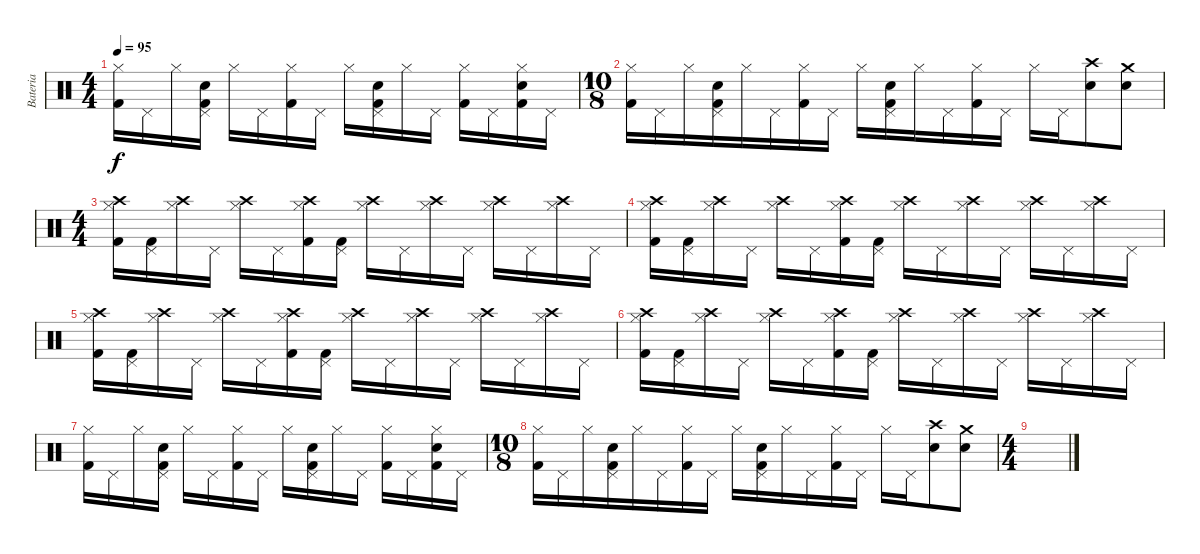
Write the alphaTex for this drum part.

\track ("Bateria" "Bateria") {instrument percussion}
\staff {score}
\articulation defaults
\ts (4 4)
\tempo 95
\clef neutral
\ks c
("Hi-Hat (closed)" "Kick (hit) 2").16{dy f} "Pedal Hi-Hat (hit)".16 "Hi-Hat (closed)".16 ("Pedal Hi-Hat (hit)" "Electric Snare (hit)" "Kick (hit) 2").16 "Hi-Hat (closed)".16 "Pedal Hi-Hat (hit)".16 ("Hi-Hat (closed)" "Kick (hit) 2").16 "Pedal Hi-Hat (hit)".16 "Hi-Hat (closed)".16 ("Pedal Hi-Hat (hit)" "Electric Snare (hit)" "Kick (hit) 2").16 "Hi-Hat (closed)".16 "Pedal Hi-Hat (hit)".16 ("Hi-Hat (closed)" "Kick (hit) 2").16 "Pedal Hi-Hat (hit)".16 ("Hi-Hat (closed)" "Electric Snare (hit)" "Kick (hit) 2").16 "Pedal Hi-Hat (hit)".16 |
\ts (10 8)
("Hi-Hat (closed)" "Kick (hit) 2").16 "Pedal Hi-Hat (hit)".16 "Hi-Hat (closed)".16 ("Pedal Hi-Hat (hit)" "Electric Snare (hit)" "Kick (hit) 2").16 "Hi-Hat (closed)".16 "Pedal Hi-Hat (hit)".16 ("Hi-Hat (closed)" "Kick (hit) 2").16 "Pedal Hi-Hat (hit)".16 "Hi-Hat (closed)".16 ("Pedal Hi-Hat (hit)" "Electric Snare (hit)" "Kick (hit) 2").16 "Hi-Hat (closed)".16 "Pedal Hi-Hat (hit)".16 ("Hi-Hat (closed)" "Kick (hit) 2").16 "Pedal Hi-Hat (hit)".16 "Hi-Hat (closed)".16 "Pedal Hi-Hat (hit)".16 ("Crash high (hit)" "Electric Snare (hit)").8 ("Crash medium (hit)" "Electric Snare (hit)").8 |
\ts (4 4)
("Crash high (hit)" "Hi-Hat (closed)" "Kick (hit) 2").16 ("Pedal Hi-Hat (hit)" "Kick (hit) 2").16 ("Crash high (hit)" "Hi-Hat (closed)").16 "Pedal Hi-Hat (hit)".16 ("Crash high (hit)" "Hi-Hat (closed)").16 "Pedal Hi-Hat (hit)".16 ("Crash high (hit)" "Hi-Hat (closed)" "Kick (hit) 2").16 ("Pedal Hi-Hat (hit)" "Kick (hit) 2").16 ("Crash high (hit)" "Hi-Hat (closed)").16 "Pedal Hi-Hat (hit)".16 ("Crash high (hit)" "Hi-Hat (closed)").16 "Pedal Hi-Hat (hit)".16 ("Crash high (hit)" "Hi-Hat (closed)").16 "Pedal Hi-Hat (hit)".16 ("Crash high (hit)" "Hi-Hat (closed)").16 "Pedal Hi-Hat (hit)".16 |
("Crash high (hit)" "Hi-Hat (closed)" "Kick (hit) 2").16 ("Pedal Hi-Hat (hit)" "Kick (hit) 2").16 ("Crash high (hit)" "Hi-Hat (closed)").16 "Pedal Hi-Hat (hit)".16 ("Crash high (hit)" "Hi-Hat (closed)").16 "Pedal Hi-Hat (hit)".16 ("Crash high (hit)" "Hi-Hat (closed)" "Kick (hit) 2").16 ("Pedal Hi-Hat (hit)" "Kick (hit) 2").16 ("Crash high (hit)" "Hi-Hat (closed)").16 "Pedal Hi-Hat (hit)".16 ("Crash high (hit)" "Hi-Hat (closed)").16 "Pedal Hi-Hat (hit)".16 ("Crash high (hit)" "Hi-Hat (closed)").16 "Pedal Hi-Hat (hit)".16 ("Crash high (hit)" "Hi-Hat (closed)").16 "Pedal Hi-Hat (hit)".16 |
("Crash high (hit)" "Hi-Hat (closed)" "Kick (hit) 2").16 ("Pedal Hi-Hat (hit)" "Kick (hit) 2").16 ("Crash high (hit)" "Hi-Hat (closed)").16 "Pedal Hi-Hat (hit)".16 ("Crash high (hit)" "Hi-Hat (closed)").16 "Pedal Hi-Hat (hit)".16 ("Crash high (hit)" "Hi-Hat (closed)" "Kick (hit) 2").16 ("Pedal Hi-Hat (hit)" "Kick (hit) 2").16 ("Crash high (hit)" "Hi-Hat (closed)").16 "Pedal Hi-Hat (hit)".16 ("Crash high (hit)" "Hi-Hat (closed)").16 "Pedal Hi-Hat (hit)".16 ("Crash high (hit)" "Hi-Hat (closed)").16 "Pedal Hi-Hat (hit)".16 ("Crash high (hit)" "Hi-Hat (closed)").16 "Pedal Hi-Hat (hit)".16 |
("Crash high (hit)" "Hi-Hat (closed)" "Kick (hit) 2").16 ("Pedal Hi-Hat (hit)" "Kick (hit) 2").16 ("Crash high (hit)" "Hi-Hat (closed)").16 "Pedal Hi-Hat (hit)".16 ("Crash high (hit)" "Hi-Hat (closed)").16 "Pedal Hi-Hat (hit)".16 ("Crash high (hit)" "Hi-Hat (closed)" "Kick (hit) 2").16 ("Pedal Hi-Hat (hit)" "Kick (hit) 2").16 ("Crash high (hit)" "Hi-Hat (closed)").16 "Pedal Hi-Hat (hit)".16 ("Crash high (hit)" "Hi-Hat (closed)").16 "Pedal Hi-Hat (hit)".16 ("Crash high (hit)" "Hi-Hat (closed)").16 "Pedal Hi-Hat (hit)".16 ("Crash high (hit)" "Hi-Hat (closed)").16 "Pedal Hi-Hat (hit)".16 |
("Hi-Hat (closed)" "Kick (hit) 2").16 "Pedal Hi-Hat (hit)".16 "Hi-Hat (closed)".16 ("Pedal Hi-Hat (hit)" "Electric Snare (hit)" "Kick (hit) 2").16 "Hi-Hat (closed)".16 "Pedal Hi-Hat (hit)".16 ("Hi-Hat (closed)" "Kick (hit) 2").16 "Pedal Hi-Hat (hit)".16 "Hi-Hat (closed)".16 ("Pedal Hi-Hat (hit)" "Electric Snare (hit)" "Kick (hit) 2").16 "Hi-Hat (closed)".16 "Pedal Hi-Hat (hit)".16 ("Hi-Hat (closed)" "Kick (hit) 2").16 "Pedal Hi-Hat (hit)".16 ("Hi-Hat (closed)" "Electric Snare (hit)" "Kick (hit) 2").16 "Pedal Hi-Hat (hit)".16 |
\ts (10 8)
("Hi-Hat (closed)" "Kick (hit) 2").16 "Pedal Hi-Hat (hit)".16 "Hi-Hat (closed)".16 ("Pedal Hi-Hat (hit)" "Electric Snare (hit)" "Kick (hit) 2").16 "Hi-Hat (closed)".16 "Pedal Hi-Hat (hit)".16 ("Hi-Hat (closed)" "Kick (hit) 2").16 "Pedal Hi-Hat (hit)".16 "Hi-Hat (closed)".16 ("Pedal Hi-Hat (hit)" "Electric Snare (hit)" "Kick (hit) 2").16 "Hi-Hat (closed)".16 "Pedal Hi-Hat (hit)".16 ("Hi-Hat (closed)" "Kick (hit) 2").16 "Pedal Hi-Hat (hit)".16 "Hi-Hat (closed)".16 "Pedal Hi-Hat (hit)".16 ("Crash high (hit)" "Electric Snare (hit)").8 ("Crash medium (hit)" "Electric Snare (hit)").8 |
\ts (4 4)
